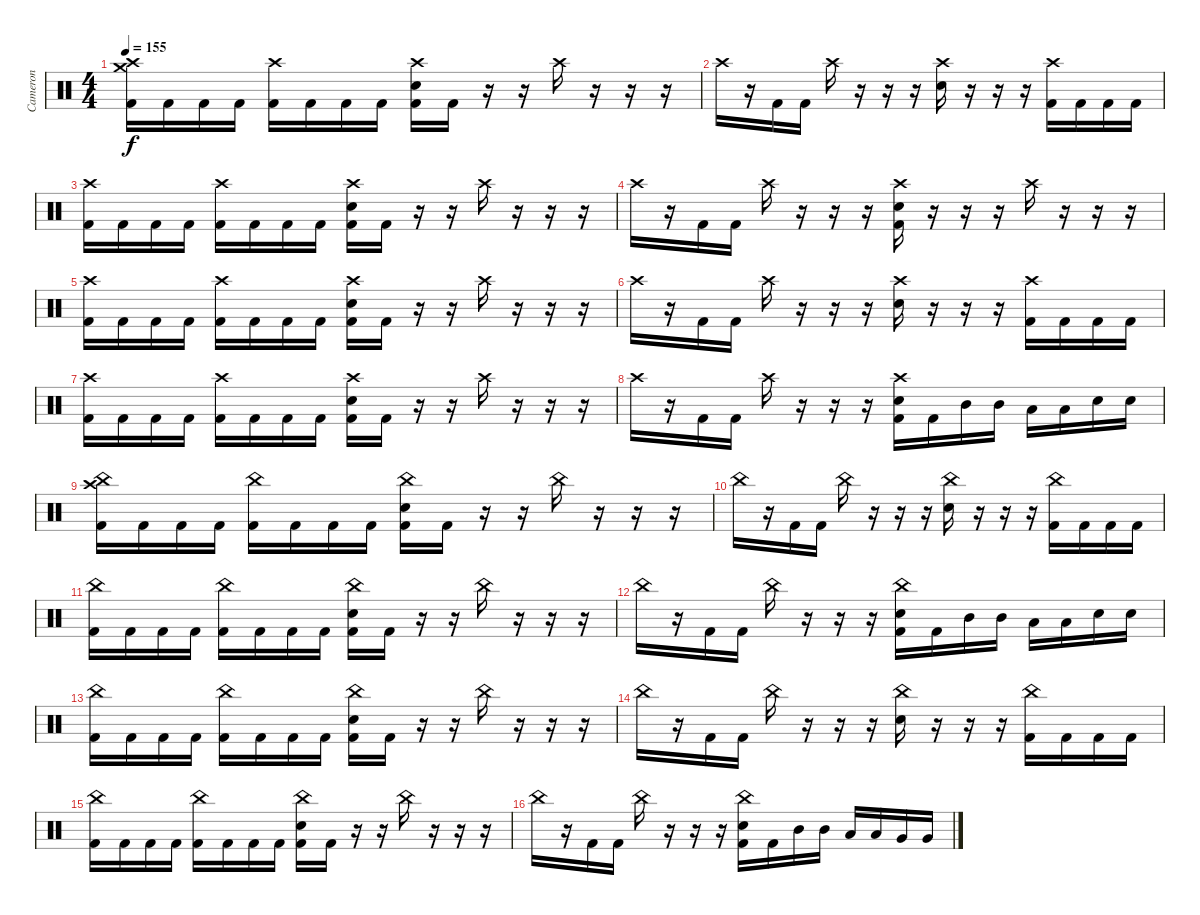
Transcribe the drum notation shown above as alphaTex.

\track ("Cameron" "Cameron") {instrument percussion}
\staff {score}
\articulation defaults
\ts (4 4)
\tempo 155
\clef neutral
\ks c
("Crash medium (hit)" "Crash high (hit)" "Kick (hit) 2").16{dy f} "Kick (hit) 2".16 "Kick (hit) 2".16 "Kick (hit) 2".16 ("Crash high (hit)" "Kick (hit) 2").16 "Kick (hit) 2".16 "Kick (hit) 2".16 "Kick (hit) 2".16 ("Crash high (hit)" "Snare (hit) 2" "Kick (hit) 2").16 "Kick (hit) 2".16 r.16 r.16 "Crash high (hit)".16 r.16 r.16 r.16 |
"Crash high (hit)".16 r.16 "Kick (hit) 2".16 "Kick (hit) 2".16 "Crash high (hit)".16 r.16 r.16 r.16 ("Crash high (hit)" "Snare (hit) 2").16 r.16 r.16 r.16 ("Crash high (hit)" "Kick (hit) 2").16 "Kick (hit) 2".16 "Kick (hit) 2".16 "Kick (hit) 2".16 |
("Crash high (hit)" "Kick (hit) 2").16 "Kick (hit) 2".16 "Kick (hit) 2".16 "Kick (hit) 2".16 ("Crash high (hit)" "Kick (hit) 2").16 "Kick (hit) 2".16 "Kick (hit) 2".16 "Kick (hit) 2".16 ("Crash high (hit)" "Snare (hit) 2" "Kick (hit) 2").16 "Kick (hit) 2".16 r.16 r.16 "Crash high (hit)".16 r.16 r.16 r.16 |
"Crash high (hit)".16 r.16 "Kick (hit) 2".16 "Kick (hit) 2".16 "Crash high (hit)".16 r.16 r.16 r.16 ("Crash high (hit)" "Snare (hit) 2" "Kick (hit) 2").16 r.16 r.16 r.16 "Crash high (hit)".16 r.16 r.16 r.16 |
("Crash high (hit)" "Kick (hit) 2").16 "Kick (hit) 2".16 "Kick (hit) 2".16 "Kick (hit) 2".16 ("Crash high (hit)" "Kick (hit) 2").16 "Kick (hit) 2".16 "Kick (hit) 2".16 "Kick (hit) 2".16 ("Crash high (hit)" "Snare (hit) 2" "Kick (hit) 2").16 "Kick (hit) 2".16 r.16 r.16 "Crash high (hit)".16 r.16 r.16 r.16 |
"Crash high (hit)".16 r.16 "Kick (hit) 2".16 "Kick (hit) 2".16 "Crash high (hit)".16 r.16 r.16 r.16 ("Crash high (hit)" "Snare (hit) 2").16 r.16 r.16 r.16 ("Crash high (hit)" "Kick (hit) 2").16 "Kick (hit) 2".16 "Kick (hit) 2".16 "Kick (hit) 2".16 |
("Crash high (hit)" "Kick (hit) 2").16 "Kick (hit) 2".16 "Kick (hit) 2".16 "Kick (hit) 2".16 ("Crash high (hit)" "Kick (hit) 2").16 "Kick (hit) 2".16 "Kick (hit) 2".16 "Kick (hit) 2".16 ("Crash high (hit)" "Snare (hit) 2" "Kick (hit) 2").16 "Kick (hit) 2".16 r.16 r.16 "Crash high (hit)".16 r.16 r.16 r.16 |
"Crash high (hit)".16 r.16 "Kick (hit) 2".16 "Kick (hit) 2".16 "Crash high (hit)".16 r.16 r.16 r.16 ("Crash high (hit)" "Snare (hit) 2" "Kick (hit) 2").16 "Kick (hit) 2".16 "Mid Tom (hit)".16 "Mid Tom (hit)".16 "Low Tom (hit)".16 "Low Tom (hit)".16 "Snare (hit) 2".16 "Snare (hit) 2".16 |
("Crash high (hit)" "China (hit)" "Kick (hit) 2").16 "Kick (hit) 2".16 "Kick (hit) 2".16 "Kick (hit) 2".16 ("China (hit)" "Kick (hit) 2").16 "Kick (hit) 2".16 "Kick (hit) 2".16 "Kick (hit) 2".16 ("China (hit)" "Snare (hit) 2" "Kick (hit) 2").16 "Kick (hit) 2".16 r.16 r.16 "China (hit)".16 r.16 r.16 r.16 |
"China (hit)".16 r.16 "Kick (hit) 2".16 "Kick (hit) 2".16 "China (hit)".16 r.16 r.16 r.16 ("China (hit)" "Snare (hit) 2").16 r.16 r.16 r.16 ("China (hit)" "Kick (hit) 2").16 "Kick (hit) 2".16 "Kick (hit) 2".16 "Kick (hit) 2".16 |
("China (hit)" "Kick (hit) 2").16 "Kick (hit) 2".16 "Kick (hit) 2".16 "Kick (hit) 2".16 ("China (hit)" "Kick (hit) 2").16 "Kick (hit) 2".16 "Kick (hit) 2".16 "Kick (hit) 2".16 ("China (hit)" "Snare (hit) 2" "Kick (hit) 2").16 "Kick (hit) 2".16 r.16 r.16 "China (hit)".16 r.16 r.16 r.16 |
"China (hit)".16 r.16 "Kick (hit) 2".16 "Kick (hit) 2".16 "China (hit)".16 r.16 r.16 r.16 ("China (hit)" "Snare (hit) 2" "Kick (hit) 2").16 "Kick (hit) 2".16 "Mid Tom (hit)".16 "Mid Tom (hit)".16 "Low Tom (hit)".16 "Low Tom (hit)".16 "Snare (hit) 2".16 "Snare (hit) 2".16 |
("China (hit)" "Kick (hit) 2").16 "Kick (hit) 2".16 "Kick (hit) 2".16 "Kick (hit) 2".16 ("China (hit)" "Kick (hit) 2").16 "Kick (hit) 2".16 "Kick (hit) 2".16 "Kick (hit) 2".16 ("China (hit)" "Snare (hit) 2" "Kick (hit) 2").16 "Kick (hit) 2".16 r.16 r.16 "China (hit)".16 r.16 r.16 r.16 |
"China (hit)".16 r.16 "Kick (hit) 2".16 "Kick (hit) 2".16 "China (hit)".16 r.16 r.16 r.16 ("China (hit)" "Snare (hit) 2").16 r.16 r.16 r.16 ("China (hit)" "Kick (hit) 2").16 "Kick (hit) 2".16 "Kick (hit) 2".16 "Kick (hit) 2".16 |
("China (hit)" "Kick (hit) 2").16 "Kick (hit) 2".16 "Kick (hit) 2".16 "Kick (hit) 2".16 ("China (hit)" "Kick (hit) 2").16 "Kick (hit) 2".16 "Kick (hit) 2".16 "Kick (hit) 2".16 ("China (hit)" "Snare (hit) 2" "Kick (hit) 2").16 "Kick (hit) 2".16 r.16 r.16 "China (hit)".16 r.16 r.16 r.16 |
"China (hit)".16 r.16 "Kick (hit) 2".16 "Kick (hit) 2".16 "China (hit)".16 r.16 r.16 r.16 ("China (hit)" "Snare (hit) 2" "Kick (hit) 2").16 "Kick (hit) 2".16 "Mid Tom (hit)".16 "Mid Tom (hit)".16 "Low Tom (hit)".16 "Low Tom (hit)".16 "Very Low Tom (hit)".16 "Very Low Tom (hit)".16
